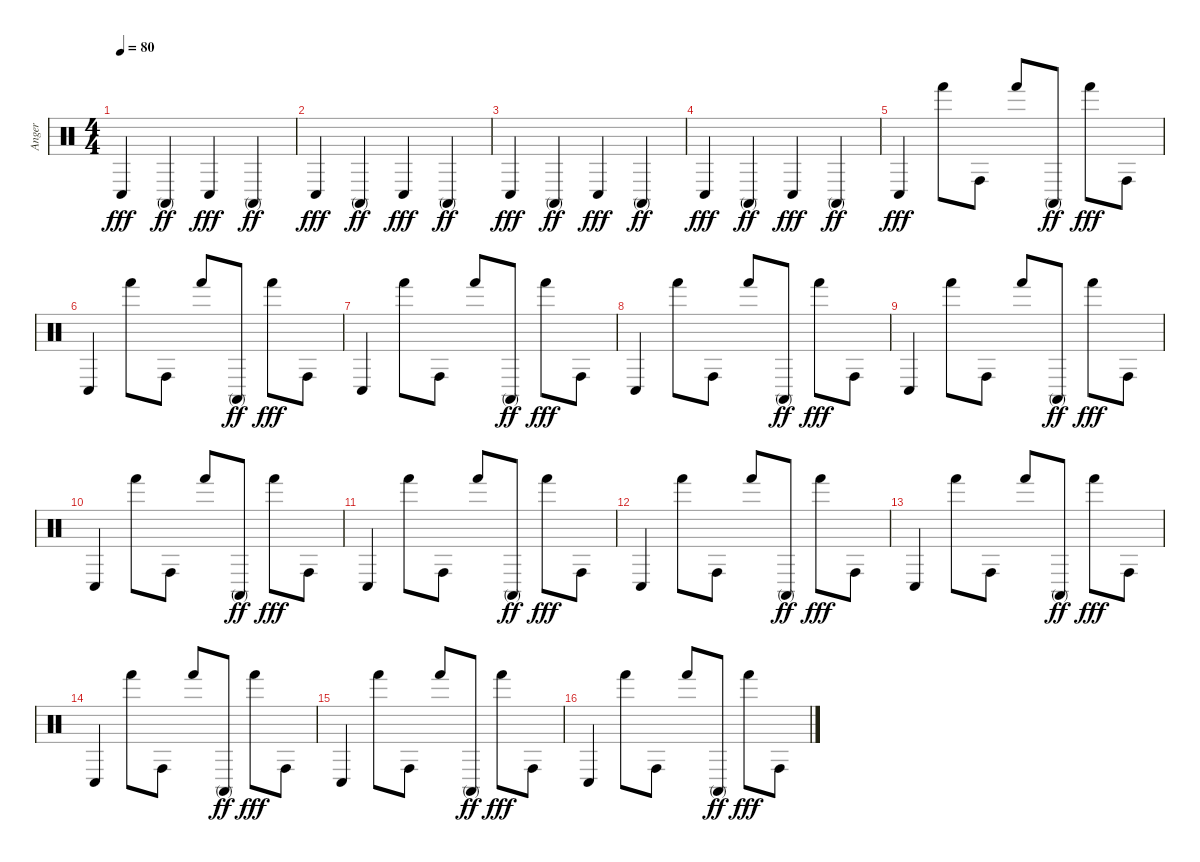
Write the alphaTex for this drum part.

\track ("Anger" "Anger") {instrument percussion}
\staff {score}
\articulation defaults
\ts (4 4)
\tempo 80
\clef neutral
\ks c "Conga low (hit)".4{dy fff} "Conga high (mute)".4{dy ff} "Conga low (hit)".4{dy fff} "Conga high (mute)".4{dy ff}
|
"Conga low (hit)".4{dy fff} "Conga high (mute)".4{dy ff} "Conga low (hit)".4{dy fff} "Conga high (mute)".4{dy ff} |
"Conga low (hit)".4{dy fff} "Conga high (mute)".4{dy ff} "Conga low (hit)".4{dy fff} "Conga high (mute)".4{dy ff} |
"Conga low (hit)".4{dy fff} "Conga high (mute)".4{dy ff} "Conga low (hit)".4{dy fff} "Conga high (mute)".4{dy ff} |
"Conga low (hit)".4{dy fff} "Hand (hit)".8 "Conga high (hit)".8 "Hand (hit)".8 "Conga high (mute)".8{dy ff} "Hand (hit)".8{dy fff} "Conga high (hit)".8 |
"Conga low (hit)".4 "Hand (hit)".8 "Conga high (hit)".8 "Hand (hit)".8 "Conga high (mute)".8{dy ff} "Hand (hit)".8{dy fff} "Conga high (hit)".8 |
"Conga low (hit)".4 "Hand (hit)".8 "Conga high (hit)".8 "Hand (hit)".8 "Conga high (mute)".8{dy ff} "Hand (hit)".8{dy fff} "Conga high (hit)".8 |
"Conga low (hit)".4 "Hand (hit)".8 "Conga high (hit)".8 "Hand (hit)".8 "Conga high (mute)".8{dy ff} "Hand (hit)".8{dy fff} "Conga high (hit)".8 |
"Conga low (hit)".4 "Hand (hit)".8 "Conga high (hit)".8 "Hand (hit)".8 "Conga high (mute)".8{dy ff} "Hand (hit)".8{dy fff} "Conga high (hit)".8 |
"Conga low (hit)".4 "Hand (hit)".8 "Conga high (hit)".8 "Hand (hit)".8 "Conga high (mute)".8{dy ff} "Hand (hit)".8{dy fff} "Conga high (hit)".8 |
"Conga low (hit)".4 "Hand (hit)".8 "Conga high (hit)".8 "Hand (hit)".8 "Conga high (mute)".8{dy ff} "Hand (hit)".8{dy fff} "Conga high (hit)".8 |
"Conga low (hit)".4 "Hand (hit)".8 "Conga high (hit)".8 "Hand (hit)".8 "Conga high (mute)".8{dy ff} "Hand (hit)".8{dy fff} "Conga high (hit)".8 |
"Conga low (hit)".4 "Hand (hit)".8 "Conga high (hit)".8 "Hand (hit)".8 "Conga high (mute)".8{dy ff} "Hand (hit)".8{dy fff} "Conga high (hit)".8 |
"Conga low (hit)".4 "Hand (hit)".8 "Conga high (hit)".8 "Hand (hit)".8 "Conga high (mute)".8{dy ff} "Hand (hit)".8{dy fff} "Conga high (hit)".8 |
"Conga low (hit)".4 "Hand (hit)".8 "Conga high (hit)".8 "Hand (hit)".8 "Conga high (mute)".8{dy ff} "Hand (hit)".8{dy fff} "Conga high (hit)".8 |
"Conga low (hit)".4 "Hand (hit)".8 "Conga high (hit)".8 "Hand (hit)".8 "Conga high (mute)".8{dy ff} "Hand (hit)".8{dy fff} "Conga high (hit)".8
